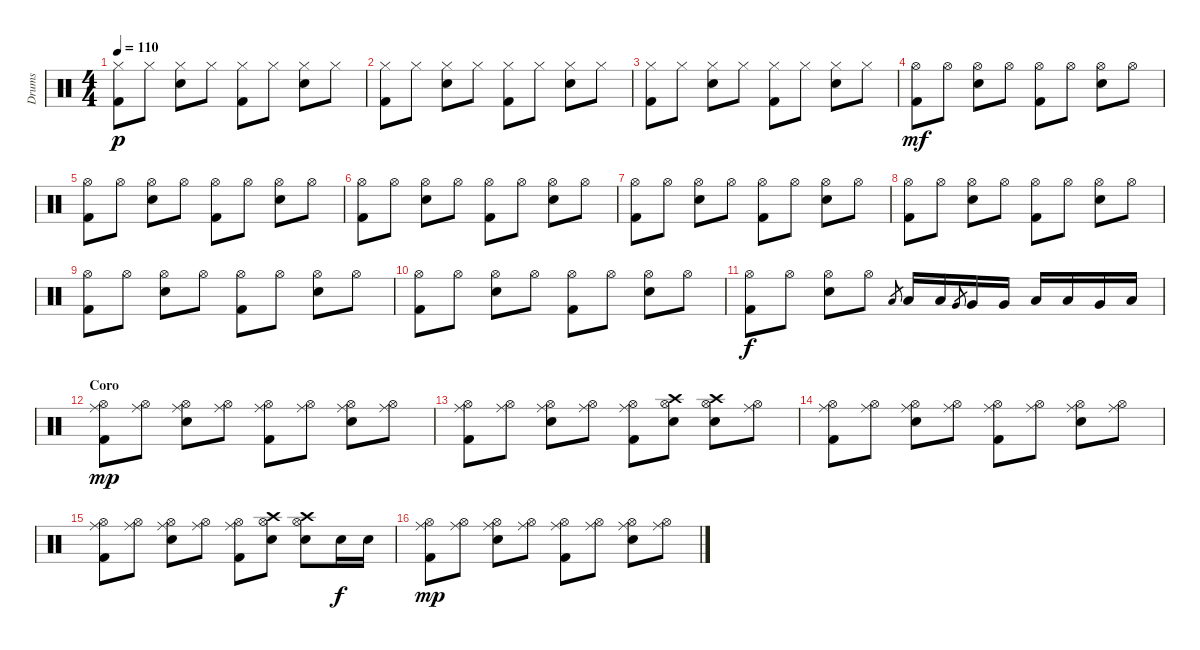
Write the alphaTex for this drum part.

\track ("Drums" "Drums") {instrument percussion}
\staff {score}
\articulation defaults
\ts (4 4)
\tempo 110
\clef neutral
\ks c
("Hi-Hat (closed)" "Kick (hit) 2").8{dy p} "Hi-Hat (closed)".8 ("Hi-Hat (closed)" "Snare (hit) 2").8 "Hi-Hat (closed)".8 ("Hi-Hat (closed)" "Kick (hit) 2").8 "Hi-Hat (closed)".8 ("Hi-Hat (closed)" "Snare (hit) 2").8 "Hi-Hat (closed)".8 |
("Hi-Hat (closed)" "Kick (hit) 2").8 "Hi-Hat (closed)".8 ("Hi-Hat (closed)" "Snare (hit) 2").8 "Hi-Hat (closed)".8 ("Hi-Hat (closed)" "Kick (hit) 2").8 "Hi-Hat (closed)".8 ("Hi-Hat (closed)" "Snare (hit) 2").8 "Hi-Hat (closed)".8 |
("Hi-Hat (closed)" "Kick (hit) 2").8 "Hi-Hat (closed)".8 ("Hi-Hat (closed)" "Snare (hit) 2").8 "Hi-Hat (closed)".8 ("Hi-Hat (closed)" "Kick (hit) 2").8 "Hi-Hat (closed)".8 ("Hi-Hat (closed)" "Snare (hit) 2").8 "Hi-Hat (closed)".8 |
("Hi-Hat (open)" "Kick (hit) 2").8{dy mf} "Hi-Hat (open)".8 ("Hi-Hat (open)" "Snare (hit) 2").8 "Hi-Hat (open)".8 ("Hi-Hat (open)" "Kick (hit) 2").8 "Hi-Hat (open)".8 ("Hi-Hat (open)" "Snare (hit) 2").8 "Hi-Hat (open)".8 |
("Hi-Hat (open)" "Kick (hit) 2").8 "Hi-Hat (open)".8 ("Hi-Hat (open)" "Snare (hit) 2").8 "Hi-Hat (open)".8 ("Hi-Hat (open)" "Kick (hit) 2").8 "Hi-Hat (open)".8 ("Hi-Hat (open)" "Snare (hit) 2").8 "Hi-Hat (open)".8 |
("Hi-Hat (open)" "Kick (hit) 2").8 "Hi-Hat (open)".8 ("Hi-Hat (open)" "Snare (hit) 2").8 "Hi-Hat (open)".8 ("Hi-Hat (open)" "Kick (hit) 2").8 "Hi-Hat (open)".8 ("Hi-Hat (open)" "Snare (hit) 2").8 "Hi-Hat (open)".8 |
("Hi-Hat (open)" "Kick (hit) 2").8 "Hi-Hat (open)".8 ("Hi-Hat (open)" "Snare (hit) 2").8 "Hi-Hat (open)".8 ("Hi-Hat (open)" "Kick (hit) 2").8 "Hi-Hat (open)".8 ("Hi-Hat (open)" "Snare (hit) 2").8 "Hi-Hat (open)".8 |
("Hi-Hat (open)" "Kick (hit) 2").8 "Hi-Hat (open)".8 ("Hi-Hat (open)" "Snare (hit) 2").8 "Hi-Hat (open)".8 ("Hi-Hat (open)" "Kick (hit) 2").8 "Hi-Hat (open)".8 ("Hi-Hat (open)" "Snare (hit) 2").8 "Hi-Hat (open)".8 |
("Hi-Hat (open)" "Kick (hit) 2").8 "Hi-Hat (open)".8 ("Hi-Hat (open)" "Snare (hit) 2").8 "Hi-Hat (open)".8 ("Hi-Hat (open)" "Kick (hit) 2").8 "Hi-Hat (open)".8 ("Hi-Hat (open)" "Snare (hit) 2").8 "Hi-Hat (open)".8 |
("Hi-Hat (open)" "Kick (hit) 2").8 "Hi-Hat (open)".8 ("Hi-Hat (open)" "Snare (hit) 2").8 "Hi-Hat (open)".8 ("Hi-Hat (open)" "Kick (hit) 2").8 "Hi-Hat (open)".8 ("Hi-Hat (open)" "Snare (hit) 2").8 "Hi-Hat (open)".8 |
("Hi-Hat (open)" "Kick (hit) 2").8{dy f} "Hi-Hat (open)".8 ("Snare (hit) 2" "Hi-Hat (open)").8 "Hi-Hat (open)".8 "Low Tom (hit)".8{gr} "Low Tom (hit)".16 "Low Tom (hit)".16 "Very Low Tom (hit)".8{gr} "Very Low Tom (hit)".16 "Very Low Tom (hit)".16 "Low Tom (hit)".16 "Low Tom (hit)".16 "Very Low Tom (hit)".16 "Low Floor Tom (hit)".16 |
\section ("" "Coro")
("Hi-Hat (open)" "Ride (middle)" "Kick (hit) 2").8{dy mp} ("Hi-Hat (open)" "Ride (middle)").8 ("Hi-Hat (open)" "Ride (middle)" "Snare (hit) 2").8 ("Hi-Hat (open)" "Ride (middle)").8 ("Hi-Hat (open)" "Ride (middle)" "Kick (hit) 2").8 ("Hi-Hat (open)" "Ride (middle)").8 ("Hi-Hat (open)" "Ride (middle)" "Snare (hit) 2").8 ("Hi-Hat (open)" "Ride (middle)").8 |
("Hi-Hat (open)" "Ride (middle)" "Kick (hit) 2").8 ("Hi-Hat (open)" "Ride (middle)").8 ("Hi-Hat (open)" "Ride (middle)" "Snare (hit) 2").8 ("Hi-Hat (open)" "Ride (middle)").8 ("Hi-Hat (open)" "Ride (middle)" "Kick (hit) 2").8 ("Hi-Hat (open)" "Snare (hit) 2" "Crash high (hit)").8 ("Hi-Hat (open)" "Snare (hit) 2" "Crash high (hit)").8 ("Hi-Hat (open)" "Ride (middle)").8 |
("Hi-Hat (open)" "Ride (middle)" "Kick (hit) 2").8 ("Hi-Hat (open)" "Ride (middle)").8 ("Hi-Hat (open)" "Ride (middle)" "Snare (hit) 2").8 ("Hi-Hat (open)" "Ride (middle)").8 ("Hi-Hat (open)" "Ride (middle)" "Kick (hit) 2").8 ("Hi-Hat (open)" "Ride (middle)").8 ("Hi-Hat (open)" "Ride (middle)" "Snare (hit) 2").8 ("Hi-Hat (open)" "Ride (middle)").8 |
("Hi-Hat (open)" "Ride (middle)" "Kick (hit) 2").8 ("Hi-Hat (open)" "Ride (middle)").8 ("Hi-Hat (open)" "Ride (middle)" "Snare (hit) 2").8 ("Hi-Hat (open)" "Ride (middle)").8 ("Hi-Hat (open)" "Ride (middle)" "Kick (hit) 2").8 ("Hi-Hat (open)" "Snare (hit) 2" "Crash high (hit)").8 ("Hi-Hat (open)" "Snare (hit) 2" "Crash high (hit)").8 "Snare (hit) 2".16{dy f} "Snare (hit) 2".16 |
("Hi-Hat (open)" "Ride (middle)" "Kick (hit) 2").8{dy mp} ("Hi-Hat (open)" "Ride (middle)").8 ("Hi-Hat (open)" "Ride (middle)" "Snare (hit) 2").8 ("Hi-Hat (open)" "Ride (middle)").8 ("Hi-Hat (open)" "Ride (middle)" "Kick (hit) 2").8 ("Hi-Hat (open)" "Ride (middle)").8 ("Hi-Hat (open)" "Ride (middle)" "Snare (hit) 2").8 ("Hi-Hat (open)" "Ride (middle)").8
